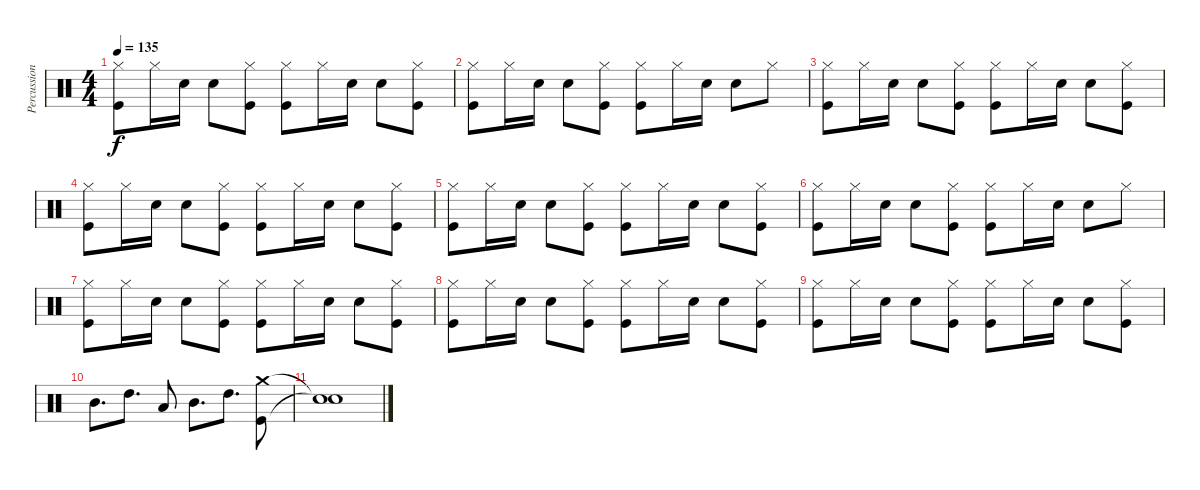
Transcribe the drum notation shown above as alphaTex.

\track ("Percussion" "Percussion") {instrument percussion}
\staff {score}
\articulation defaults
\ts (4 4)
\tempo 135
\clef neutral
\ks c
("Kick (hit)" "Hi-Hat (closed)").8{dy f} "Hi-Hat (closed)".16 "Snare (hit) 2".16 "Snare (hit) 2".8 ("Kick (hit)" "Hi-Hat (closed)").8 ("Kick (hit)" "Hi-Hat (closed)").8 "Hi-Hat (closed)".16 "Snare (hit) 2".16 "Snare (hit) 2".8 ("Kick (hit)" "Hi-Hat (closed)").8 |
("Kick (hit)" "Hi-Hat (closed)").8 "Hi-Hat (closed)".16 "Snare (hit) 2".16 "Snare (hit) 2".8 ("Kick (hit)" "Hi-Hat (closed)").8 ("Kick (hit)" "Hi-Hat (closed)").8 "Hi-Hat (closed)".16 "Snare (hit) 2".16 "Snare (hit) 2".8 "Hi-Hat (closed)".8 |
("Kick (hit)" "Hi-Hat (closed)").8 "Hi-Hat (closed)".16 "Snare (hit) 2".16 "Snare (hit) 2".8 ("Kick (hit)" "Hi-Hat (closed)").8 ("Kick (hit)" "Hi-Hat (closed)").8 "Hi-Hat (closed)".16 "Snare (hit) 2".16 "Snare (hit) 2".8 ("Kick (hit)" "Hi-Hat (closed)").8 |
("Kick (hit)" "Hi-Hat (closed)").8 "Hi-Hat (closed)".16 "Snare (hit) 2".16 "Snare (hit) 2".8 ("Kick (hit)" "Hi-Hat (closed)").8 ("Kick (hit)" "Hi-Hat (closed)").8 "Hi-Hat (closed)".16 "Snare (hit) 2".16 "Snare (hit) 2".8 ("Kick (hit)" "Hi-Hat (closed)").8 |
("Kick (hit)" "Hi-Hat (closed)").8 "Hi-Hat (closed)".16 "Snare (hit) 2".16 "Snare (hit) 2".8 ("Kick (hit)" "Hi-Hat (closed)").8 ("Kick (hit)" "Hi-Hat (closed)").8 "Hi-Hat (closed)".16 "Snare (hit) 2".16 "Snare (hit) 2".8 ("Kick (hit)" "Hi-Hat (closed)").8 |
("Kick (hit)" "Hi-Hat (closed)").8 "Hi-Hat (closed)".16 "Snare (hit) 2".16 "Snare (hit) 2".8 ("Kick (hit)" "Hi-Hat (closed)").8 ("Kick (hit)" "Hi-Hat (closed)").8 "Hi-Hat (closed)".16 "Snare (hit) 2".16 "Snare (hit) 2".8 "Hi-Hat (closed)".8 |
("Kick (hit)" "Hi-Hat (closed)").8 "Hi-Hat (closed)".16 "Snare (hit) 2".16 "Snare (hit) 2".8 ("Kick (hit)" "Hi-Hat (closed)").8 ("Kick (hit)" "Hi-Hat (closed)").8 "Hi-Hat (closed)".16 "Snare (hit) 2".16 "Snare (hit) 2".8 ("Kick (hit)" "Hi-Hat (closed)").8 |
("Kick (hit)" "Hi-Hat (closed)").8 "Hi-Hat (closed)".16 "Snare (hit) 2".16 "Snare (hit) 2".8 ("Kick (hit)" "Hi-Hat (closed)").8 ("Kick (hit)" "Hi-Hat (closed)").8 "Hi-Hat (closed)".16 "Snare (hit) 2".16 "Snare (hit) 2".8 ("Kick (hit)" "Hi-Hat (closed)").8 |
("Kick (hit)" "Hi-Hat (closed)").8 "Hi-Hat (closed)".16 "Snare (hit) 2".16 "Snare (hit) 2".8 ("Kick (hit)" "Hi-Hat (closed)").8 ("Kick (hit)" "Hi-Hat (closed)").8 "Hi-Hat (closed)".16 "Snare (hit) 2".16 "Snare (hit) 2".8 ("Kick (hit)" "Hi-Hat (closed)").8 |
"Mid Tom (hit)".8{d} "High Tom (hit)".8{d} "Low Tom (hit)".8 "Mid Tom (hit)".8{d} "High Tom (hit)".8{d} ("Kick (hit)" "Crash medium (hit)").8 |
("Snare (hit)"{t} "Snare (hit)"{t}).1
